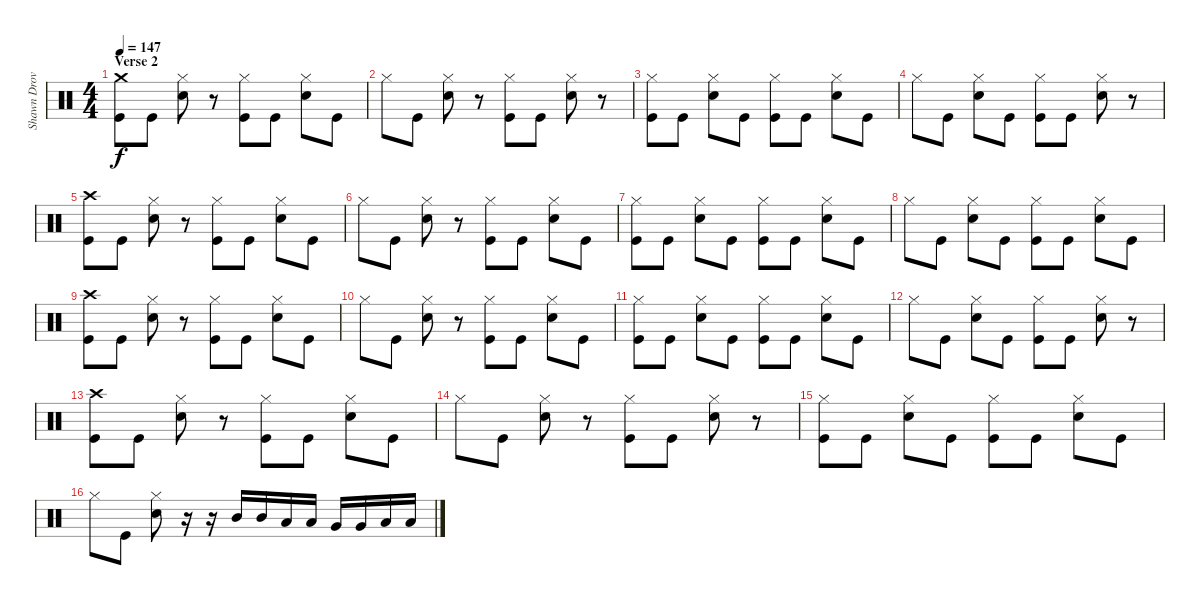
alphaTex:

\track ("Shawn Drover" "Shawn Drov") {instrument percussion}
\staff {score}
\articulation defaults
\ts (4 4)
\section ("" "Verse 2")
\tempo 147
\clef neutral
\ks c
("Crash medium (hit)" "Kick (hit)").8{dy f} "Kick (hit)".8 ("Hi-Hat (closed)" "Snare (hit) 2").8 r.8 ("Hi-Hat (closed)" "Kick (hit)").8 "Kick (hit)".8 ("Hi-Hat (closed)" "Snare (hit) 2").8 "Kick (hit)".8 |
"Hi-Hat (closed)".8 "Kick (hit)".8 ("Hi-Hat (closed)" "Snare (hit) 2").8 r.8 ("Hi-Hat (closed)" "Kick (hit)").8 "Kick (hit)".8 ("Hi-Hat (closed)" "Snare (hit) 2").8 r.8 |
("Hi-Hat (closed)" "Kick (hit)").8 "Kick (hit)".8 ("Hi-Hat (closed)" "Snare (hit) 2").8 "Kick (hit)".8 ("Hi-Hat (closed)" "Kick (hit)").8 "Kick (hit)".8 ("Hi-Hat (closed)" "Snare (hit) 2").8 "Kick (hit)".8 |
"Hi-Hat (closed)".8 "Kick (hit)".8 ("Hi-Hat (closed)" "Snare (hit) 2").8 "Kick (hit)".8 ("Hi-Hat (closed)" "Kick (hit)").8 "Kick (hit)".8 ("Hi-Hat (closed)" "Snare (hit) 2").8 r.8 |
("Crash high (hit)" "Kick (hit)").8 "Kick (hit)".8 ("Hi-Hat (closed)" "Snare (hit) 2").8 r.8 ("Hi-Hat (closed)" "Kick (hit)").8 "Kick (hit)".8 ("Hi-Hat (closed)" "Snare (hit) 2").8 "Kick (hit)".8 |
"Hi-Hat (closed)".8 "Kick (hit)".8 ("Hi-Hat (closed)" "Snare (hit) 2").8 r.8 ("Hi-Hat (closed)" "Kick (hit)").8 "Kick (hit)".8 ("Hi-Hat (closed)" "Snare (hit) 2").8 "Kick (hit)".8 |
("Hi-Hat (closed)" "Kick (hit)").8 "Kick (hit)".8 ("Hi-Hat (closed)" "Snare (hit) 2").8 "Kick (hit)".8 ("Hi-Hat (closed)" "Kick (hit)").8 "Kick (hit)".8 ("Hi-Hat (closed)" "Snare (hit) 2").8 "Kick (hit)".8 |
"Hi-Hat (closed)".8 "Kick (hit)".8 ("Hi-Hat (closed)" "Snare (hit) 2").8 "Kick (hit)".8 ("Hi-Hat (closed)" "Kick (hit)").8 "Kick (hit)".8 ("Hi-Hat (closed)" "Snare (hit) 2").8 "Kick (hit)".8 |
("Crash high (hit)" "Kick (hit)").8 "Kick (hit)".8 ("Hi-Hat (closed)" "Snare (hit) 2").8 r.8 ("Hi-Hat (closed)" "Kick (hit)").8 "Kick (hit)".8 ("Hi-Hat (closed)" "Snare (hit) 2").8 "Kick (hit)".8 |
"Hi-Hat (closed)".8 "Kick (hit)".8 ("Hi-Hat (closed)" "Snare (hit) 2").8 r.8 ("Hi-Hat (closed)" "Kick (hit)").8 "Kick (hit)".8 ("Hi-Hat (closed)" "Snare (hit) 2").8 "Kick (hit)".8 |
("Hi-Hat (closed)" "Kick (hit)").8 "Kick (hit)".8 ("Hi-Hat (closed)" "Snare (hit) 2").8 "Kick (hit)".8 ("Hi-Hat (closed)" "Kick (hit)").8 "Kick (hit)".8 ("Hi-Hat (closed)" "Snare (hit) 2").8 "Kick (hit)".8 |
"Hi-Hat (closed)".8 "Kick (hit)".8 ("Hi-Hat (closed)" "Snare (hit) 2").8 "Kick (hit)".8 ("Hi-Hat (closed)" "Kick (hit)").8 "Kick (hit)".8 ("Hi-Hat (closed)" "Snare (hit) 2").8 r.8 |
("Crash high (hit)" "Kick (hit)").8 "Kick (hit)".8 ("Hi-Hat (closed)" "Snare (hit) 2").8 r.8 ("Hi-Hat (closed)" "Kick (hit)").8 "Kick (hit)".8 ("Hi-Hat (closed)" "Snare (hit) 2").8 "Kick (hit)".8 |
"Hi-Hat (closed)".8 "Kick (hit)".8 ("Hi-Hat (closed)" "Snare (hit) 2").8 r.8 ("Hi-Hat (closed)" "Kick (hit)").8 "Kick (hit)".8 ("Hi-Hat (closed)" "Snare (hit) 2").8 r.8 |
("Hi-Hat (closed)" "Kick (hit)").8 "Kick (hit)".8 ("Hi-Hat (closed)" "Snare (hit) 2").8 "Kick (hit)".8 ("Hi-Hat (closed)" "Kick (hit)").8 "Kick (hit)".8 ("Hi-Hat (closed)" "Snare (hit) 2").8 "Kick (hit)".8 |
"Hi-Hat (closed)".8 "Kick (hit)".8 ("Hi-Hat (closed)" "Snare (hit) 2").8 r.16 r.16 "Mid Tom (hit)".16 "Mid Tom (hit)".16 "Low Tom (hit)".16 "Low Tom (hit)".16 "Very Low Tom (hit)".16 "Very Low Tom (hit)".16 "Low Floor Tom (hit)".16 "Low Floor Tom (hit)".16
